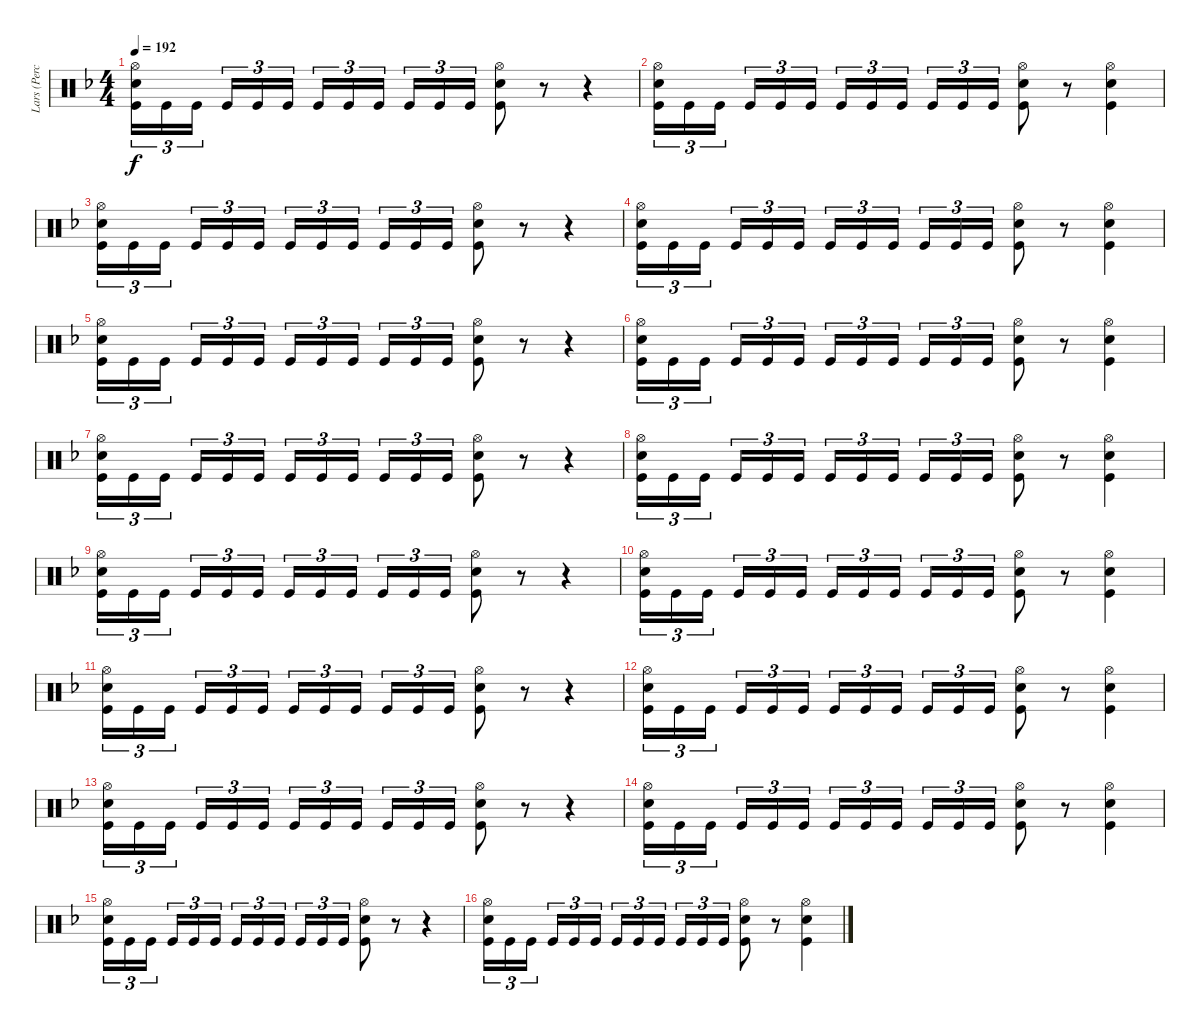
\track ("Lars (Percussion)" "Lars (Perc") {instrument percussion}
\staff {score}
\articulation defaults
\ts (4 4)
\tempo 192
\clef neutral
\ks f
("Hi-Hat (open)" "Snare (hit) 2" "Kick (hit)").16{tu (3 2) dy f} "Kick (hit)".16{tu (3 2)} "Kick (hit)".16{tu (3 2)} "Kick (hit)".16{tu (3 2)} "Kick (hit)".16{tu (3 2)} "Kick (hit)".16{tu (3 2)} "Kick (hit)".16{tu (3 2)} "Kick (hit)".16{tu (3 2)} "Kick (hit)".16{tu (3 2)} "Kick (hit)".16{tu (3 2)} "Kick (hit)".16{tu (3 2)} "Kick (hit)".16{tu (3 2)} ("Hi-Hat (open)" "Snare (hit) 2" "Kick (hit)").8 r.8 r.4 |
("Hi-Hat (open)" "Snare (hit) 2" "Kick (hit)").16{tu (3 2)} "Kick (hit)".16{tu (3 2)} "Kick (hit)".16{tu (3 2)} "Kick (hit)".16{tu (3 2)} "Kick (hit)".16{tu (3 2)} "Kick (hit)".16{tu (3 2)} "Kick (hit)".16{tu (3 2)} "Kick (hit)".16{tu (3 2)} "Kick (hit)".16{tu (3 2)} "Kick (hit)".16{tu (3 2)} "Kick (hit)".16{tu (3 2)} "Kick (hit)".16{tu (3 2)} ("Hi-Hat (open)" "Snare (hit) 2" "Kick (hit)").8 r.8 ("Hi-Hat (open)" "Snare (hit) 2" "Kick (hit)").4 |
("Hi-Hat (open)" "Snare (hit) 2" "Kick (hit)").16{tu (3 2)} "Kick (hit)".16{tu (3 2)} "Kick (hit)".16{tu (3 2)} "Kick (hit)".16{tu (3 2)} "Kick (hit)".16{tu (3 2)} "Kick (hit)".16{tu (3 2)} "Kick (hit)".16{tu (3 2)} "Kick (hit)".16{tu (3 2)} "Kick (hit)".16{tu (3 2)} "Kick (hit)".16{tu (3 2)} "Kick (hit)".16{tu (3 2)} "Kick (hit)".16{tu (3 2)} ("Hi-Hat (open)" "Snare (hit) 2" "Kick (hit)").8 r.8 r.4 |
("Hi-Hat (open)" "Snare (hit) 2" "Kick (hit)").16{tu (3 2)} "Kick (hit)".16{tu (3 2)} "Kick (hit)".16{tu (3 2)} "Kick (hit)".16{tu (3 2)} "Kick (hit)".16{tu (3 2)} "Kick (hit)".16{tu (3 2)} "Kick (hit)".16{tu (3 2)} "Kick (hit)".16{tu (3 2)} "Kick (hit)".16{tu (3 2)} "Kick (hit)".16{tu (3 2)} "Kick (hit)".16{tu (3 2)} "Kick (hit)".16{tu (3 2)} ("Hi-Hat (open)" "Snare (hit) 2" "Kick (hit)").8 r.8 ("Hi-Hat (open)" "Snare (hit) 2" "Kick (hit)").4 |
("Hi-Hat (open)" "Snare (hit) 2" "Kick (hit)").16{tu (3 2)} "Kick (hit)".16{tu (3 2)} "Kick (hit)".16{tu (3 2)} "Kick (hit)".16{tu (3 2)} "Kick (hit)".16{tu (3 2)} "Kick (hit)".16{tu (3 2)} "Kick (hit)".16{tu (3 2)} "Kick (hit)".16{tu (3 2)} "Kick (hit)".16{tu (3 2)} "Kick (hit)".16{tu (3 2)} "Kick (hit)".16{tu (3 2)} "Kick (hit)".16{tu (3 2)} ("Hi-Hat (open)" "Snare (hit) 2" "Kick (hit)").8 r.8 r.4 |
("Hi-Hat (open)" "Snare (hit) 2" "Kick (hit)").16{tu (3 2)} "Kick (hit)".16{tu (3 2)} "Kick (hit)".16{tu (3 2)} "Kick (hit)".16{tu (3 2)} "Kick (hit)".16{tu (3 2)} "Kick (hit)".16{tu (3 2)} "Kick (hit)".16{tu (3 2)} "Kick (hit)".16{tu (3 2)} "Kick (hit)".16{tu (3 2)} "Kick (hit)".16{tu (3 2)} "Kick (hit)".16{tu (3 2)} "Kick (hit)".16{tu (3 2)} ("Hi-Hat (open)" "Snare (hit) 2" "Kick (hit)").8 r.8 ("Hi-Hat (open)" "Snare (hit) 2" "Kick (hit)").4 |
("Hi-Hat (open)" "Snare (hit) 2" "Kick (hit)").16{tu (3 2)} "Kick (hit)".16{tu (3 2)} "Kick (hit)".16{tu (3 2)} "Kick (hit)".16{tu (3 2)} "Kick (hit)".16{tu (3 2)} "Kick (hit)".16{tu (3 2)} "Kick (hit)".16{tu (3 2)} "Kick (hit)".16{tu (3 2)} "Kick (hit)".16{tu (3 2)} "Kick (hit)".16{tu (3 2)} "Kick (hit)".16{tu (3 2)} "Kick (hit)".16{tu (3 2)} ("Hi-Hat (open)" "Snare (hit) 2" "Kick (hit)").8 r.8 r.4 |
("Hi-Hat (open)" "Snare (hit) 2" "Kick (hit)").16{tu (3 2)} "Kick (hit)".16{tu (3 2)} "Kick (hit)".16{tu (3 2)} "Kick (hit)".16{tu (3 2)} "Kick (hit)".16{tu (3 2)} "Kick (hit)".16{tu (3 2)} "Kick (hit)".16{tu (3 2)} "Kick (hit)".16{tu (3 2)} "Kick (hit)".16{tu (3 2)} "Kick (hit)".16{tu (3 2)} "Kick (hit)".16{tu (3 2)} "Kick (hit)".16{tu (3 2)} ("Hi-Hat (open)" "Snare (hit) 2" "Kick (hit)").8 r.8 ("Hi-Hat (open)" "Snare (hit) 2" "Kick (hit)").4 |
("Hi-Hat (open)" "Snare (hit) 2" "Kick (hit)").16{tu (3 2)} "Kick (hit)".16{tu (3 2)} "Kick (hit)".16{tu (3 2)} "Kick (hit)".16{tu (3 2)} "Kick (hit)".16{tu (3 2)} "Kick (hit)".16{tu (3 2)} "Kick (hit)".16{tu (3 2)} "Kick (hit)".16{tu (3 2)} "Kick (hit)".16{tu (3 2)} "Kick (hit)".16{tu (3 2)} "Kick (hit)".16{tu (3 2)} "Kick (hit)".16{tu (3 2)} ("Hi-Hat (open)" "Snare (hit) 2" "Kick (hit)").8 r.8 r.4 |
("Hi-Hat (open)" "Snare (hit) 2" "Kick (hit)").16{tu (3 2)} "Kick (hit)".16{tu (3 2)} "Kick (hit)".16{tu (3 2)} "Kick (hit)".16{tu (3 2)} "Kick (hit)".16{tu (3 2)} "Kick (hit)".16{tu (3 2)} "Kick (hit)".16{tu (3 2)} "Kick (hit)".16{tu (3 2)} "Kick (hit)".16{tu (3 2)} "Kick (hit)".16{tu (3 2)} "Kick (hit)".16{tu (3 2)} "Kick (hit)".16{tu (3 2)} ("Hi-Hat (open)" "Snare (hit) 2" "Kick (hit)").8 r.8 ("Hi-Hat (open)" "Snare (hit) 2" "Kick (hit)").4 |
("Hi-Hat (open)" "Snare (hit) 2" "Kick (hit)").16{tu (3 2)} "Kick (hit)".16{tu (3 2)} "Kick (hit)".16{tu (3 2)} "Kick (hit)".16{tu (3 2)} "Kick (hit)".16{tu (3 2)} "Kick (hit)".16{tu (3 2)} "Kick (hit)".16{tu (3 2)} "Kick (hit)".16{tu (3 2)} "Kick (hit)".16{tu (3 2)} "Kick (hit)".16{tu (3 2)} "Kick (hit)".16{tu (3 2)} "Kick (hit)".16{tu (3 2)} ("Hi-Hat (open)" "Snare (hit) 2" "Kick (hit)").8 r.8 r.4 |
("Hi-Hat (open)" "Snare (hit) 2" "Kick (hit)").16{tu (3 2)} "Kick (hit)".16{tu (3 2)} "Kick (hit)".16{tu (3 2)} "Kick (hit)".16{tu (3 2)} "Kick (hit)".16{tu (3 2)} "Kick (hit)".16{tu (3 2)} "Kick (hit)".16{tu (3 2)} "Kick (hit)".16{tu (3 2)} "Kick (hit)".16{tu (3 2)} "Kick (hit)".16{tu (3 2)} "Kick (hit)".16{tu (3 2)} "Kick (hit)".16{tu (3 2)} ("Hi-Hat (open)" "Snare (hit) 2" "Kick (hit)").8 r.8 ("Hi-Hat (open)" "Snare (hit) 2" "Kick (hit)").4 |
("Hi-Hat (open)" "Snare (hit) 2" "Kick (hit)").16{tu (3 2)} "Kick (hit)".16{tu (3 2)} "Kick (hit)".16{tu (3 2)} "Kick (hit)".16{tu (3 2)} "Kick (hit)".16{tu (3 2)} "Kick (hit)".16{tu (3 2)} "Kick (hit)".16{tu (3 2)} "Kick (hit)".16{tu (3 2)} "Kick (hit)".16{tu (3 2)} "Kick (hit)".16{tu (3 2)} "Kick (hit)".16{tu (3 2)} "Kick (hit)".16{tu (3 2)} ("Hi-Hat (open)" "Snare (hit) 2" "Kick (hit)").8 r.8 r.4 |
("Hi-Hat (open)" "Snare (hit) 2" "Kick (hit)").16{tu (3 2)} "Kick (hit)".16{tu (3 2)} "Kick (hit)".16{tu (3 2)} "Kick (hit)".16{tu (3 2)} "Kick (hit)".16{tu (3 2)} "Kick (hit)".16{tu (3 2)} "Kick (hit)".16{tu (3 2)} "Kick (hit)".16{tu (3 2)} "Kick (hit)".16{tu (3 2)} "Kick (hit)".16{tu (3 2)} "Kick (hit)".16{tu (3 2)} "Kick (hit)".16{tu (3 2)} ("Hi-Hat (open)" "Snare (hit) 2" "Kick (hit)").8 r.8 ("Hi-Hat (open)" "Snare (hit) 2" "Kick (hit)").4 |
("Hi-Hat (open)" "Snare (hit) 2" "Kick (hit)").16{tu (3 2)} "Kick (hit)".16{tu (3 2)} "Kick (hit)".16{tu (3 2)} "Kick (hit)".16{tu (3 2)} "Kick (hit)".16{tu (3 2)} "Kick (hit)".16{tu (3 2)} "Kick (hit)".16{tu (3 2)} "Kick (hit)".16{tu (3 2)} "Kick (hit)".16{tu (3 2)} "Kick (hit)".16{tu (3 2)} "Kick (hit)".16{tu (3 2)} "Kick (hit)".16{tu (3 2)} ("Hi-Hat (open)" "Snare (hit) 2" "Kick (hit)").8 r.8 r.4 |
("Hi-Hat (open)" "Snare (hit) 2" "Kick (hit)").16{tu (3 2)} "Kick (hit)".16{tu (3 2)} "Kick (hit)".16{tu (3 2)} "Kick (hit)".16{tu (3 2)} "Kick (hit)".16{tu (3 2)} "Kick (hit)".16{tu (3 2)} "Kick (hit)".16{tu (3 2)} "Kick (hit)".16{tu (3 2)} "Kick (hit)".16{tu (3 2)} "Kick (hit)".16{tu (3 2)} "Kick (hit)".16{tu (3 2)} "Kick (hit)".16{tu (3 2)} ("Hi-Hat (open)" "Snare (hit) 2" "Kick (hit)").8 r.8 ("Hi-Hat (open)" "Snare (hit) 2" "Kick (hit)").4
